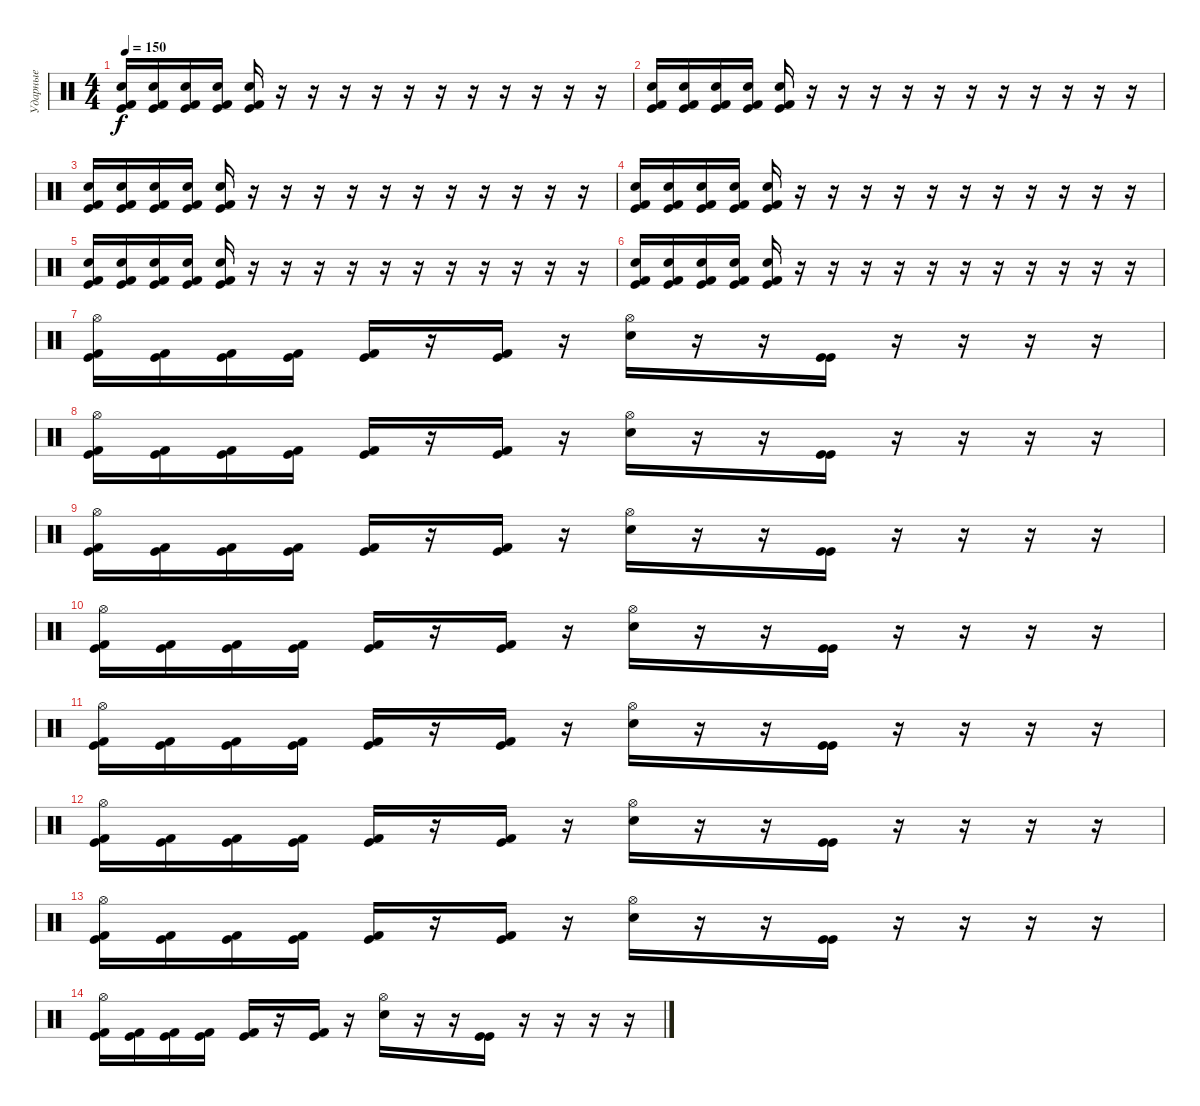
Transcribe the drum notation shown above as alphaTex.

\track ("Ударные" "Ударные") {instrument percussion}
\staff {score}
\articulation defaults
\ts (4 4)
\tempo 150
\clef neutral
\ks c
("Electric Snare (hit)" "Kick (hit)" "Kick (hit) 2").16{dy f} ("Electric Snare (hit)" "Kick (hit)" "Kick (hit) 2").16 ("Electric Snare (hit)" "Kick (hit)" "Kick (hit) 2").16 ("Electric Snare (hit)" "Kick (hit)" "Kick (hit) 2").16 ("Electric Snare (hit)" "Kick (hit)" "Kick (hit) 2").16 r.16 r.16 r.16 r.16 r.16 r.16 r.16 r.16 r.16 r.16 r.16 |
("Electric Snare (hit)" "Kick (hit)" "Kick (hit) 2").16 ("Electric Snare (hit)" "Kick (hit)" "Kick (hit) 2").16 ("Electric Snare (hit)" "Kick (hit)" "Kick (hit) 2").16 ("Electric Snare (hit)" "Kick (hit)" "Kick (hit) 2").16 ("Electric Snare (hit)" "Kick (hit)" "Kick (hit) 2").16 r.16 r.16 r.16 r.16 r.16 r.16 r.16 r.16 r.16 r.16 r.16 |
("Electric Snare (hit)" "Kick (hit)" "Kick (hit) 2").16 ("Electric Snare (hit)" "Kick (hit)" "Kick (hit) 2").16 ("Electric Snare (hit)" "Kick (hit)" "Kick (hit) 2").16 ("Electric Snare (hit)" "Kick (hit)" "Kick (hit) 2").16 ("Electric Snare (hit)" "Kick (hit)" "Kick (hit) 2").16 r.16 r.16 r.16 r.16 r.16 r.16 r.16 r.16 r.16 r.16 r.16 |
("Electric Snare (hit)" "Kick (hit)" "Kick (hit) 2").16 ("Electric Snare (hit)" "Kick (hit)" "Kick (hit) 2").16 ("Electric Snare (hit)" "Kick (hit)" "Kick (hit) 2").16 ("Electric Snare (hit)" "Kick (hit)" "Kick (hit) 2").16 ("Electric Snare (hit)" "Kick (hit)" "Kick (hit) 2").16 r.16 r.16 r.16 r.16 r.16 r.16 r.16 r.16 r.16 r.16 r.16 |
("Electric Snare (hit)" "Kick (hit)" "Kick (hit) 2").16 ("Electric Snare (hit)" "Kick (hit)" "Kick (hit) 2").16 ("Electric Snare (hit)" "Kick (hit)" "Kick (hit) 2").16 ("Electric Snare (hit)" "Kick (hit)" "Kick (hit) 2").16 ("Electric Snare (hit)" "Kick (hit)" "Kick (hit) 2").16 r.16 r.16 r.16 r.16 r.16 r.16 r.16 r.16 r.16 r.16 r.16 |
("Electric Snare (hit)" "Kick (hit)" "Kick (hit) 2").16 ("Electric Snare (hit)" "Kick (hit)" "Kick (hit) 2").16 ("Electric Snare (hit)" "Kick (hit)" "Kick (hit) 2").16 ("Electric Snare (hit)" "Kick (hit)" "Kick (hit) 2").16 ("Electric Snare (hit)" "Kick (hit)" "Kick (hit) 2").16 r.16 r.16 r.16 r.16 r.16 r.16 r.16 r.16 r.16 r.16 r.16 |
("Hi-Hat (open)" "Kick (hit)" "Kick (hit) 2").16 ("Kick (hit)" "Kick (hit) 2").16 ("Kick (hit)" "Kick (hit) 2").16 ("Kick (hit)" "Kick (hit) 2").16 ("Kick (hit)" "Kick (hit) 2").16 r.16 ("Kick (hit)" "Kick (hit) 2").16 r.16 ("Hi-Hat (open)" "Electric Snare (hit)").16 r.16 r.16 ("Kick (hit)" "Kick (hit)").16 r.16 r.16 r.16 r.16 |
("Hi-Hat (open)" "Kick (hit)" "Kick (hit) 2").16 ("Kick (hit)" "Kick (hit) 2").16 ("Kick (hit)" "Kick (hit) 2").16 ("Kick (hit)" "Kick (hit) 2").16 ("Kick (hit)" "Kick (hit) 2").16 r.16 ("Kick (hit)" "Kick (hit) 2").16 r.16 ("Hi-Hat (open)" "Electric Snare (hit)").16 r.16 r.16 ("Kick (hit)" "Kick (hit)").16 r.16 r.16 r.16 r.16 |
("Hi-Hat (open)" "Kick (hit)" "Kick (hit) 2").16 ("Kick (hit)" "Kick (hit) 2").16 ("Kick (hit)" "Kick (hit) 2").16 ("Kick (hit)" "Kick (hit) 2").16 ("Kick (hit)" "Kick (hit) 2").16 r.16 ("Kick (hit)" "Kick (hit) 2").16 r.16 ("Hi-Hat (open)" "Electric Snare (hit)").16 r.16 r.16 ("Kick (hit)" "Kick (hit)").16 r.16 r.16 r.16 r.16 |
("Hi-Hat (open)" "Kick (hit)" "Kick (hit) 2").16 ("Kick (hit)" "Kick (hit) 2").16 ("Kick (hit)" "Kick (hit) 2").16 ("Kick (hit)" "Kick (hit) 2").16 ("Kick (hit)" "Kick (hit) 2").16 r.16 ("Kick (hit)" "Kick (hit) 2").16 r.16 ("Hi-Hat (open)" "Electric Snare (hit)").16 r.16 r.16 ("Kick (hit)" "Kick (hit)").16 r.16 r.16 r.16 r.16 |
("Hi-Hat (open)" "Kick (hit)" "Kick (hit) 2").16 ("Kick (hit)" "Kick (hit) 2").16 ("Kick (hit)" "Kick (hit) 2").16 ("Kick (hit)" "Kick (hit) 2").16 ("Kick (hit)" "Kick (hit) 2").16 r.16 ("Kick (hit)" "Kick (hit) 2").16 r.16 ("Hi-Hat (open)" "Electric Snare (hit)").16 r.16 r.16 ("Kick (hit)" "Kick (hit)").16 r.16 r.16 r.16 r.16 |
("Hi-Hat (open)" "Kick (hit)" "Kick (hit) 2").16 ("Kick (hit)" "Kick (hit) 2").16 ("Kick (hit)" "Kick (hit) 2").16 ("Kick (hit)" "Kick (hit) 2").16 ("Kick (hit)" "Kick (hit) 2").16 r.16 ("Kick (hit)" "Kick (hit) 2").16 r.16 ("Hi-Hat (open)" "Electric Snare (hit)").16 r.16 r.16 ("Kick (hit)" "Kick (hit)").16 r.16 r.16 r.16 r.16 |
("Hi-Hat (open)" "Kick (hit)" "Kick (hit) 2").16 ("Kick (hit)" "Kick (hit) 2").16 ("Kick (hit)" "Kick (hit) 2").16 ("Kick (hit)" "Kick (hit) 2").16 ("Kick (hit)" "Kick (hit) 2").16 r.16 ("Kick (hit)" "Kick (hit) 2").16 r.16 ("Hi-Hat (open)" "Electric Snare (hit)").16 r.16 r.16 ("Kick (hit)" "Kick (hit)").16 r.16 r.16 r.16 r.16 |
("Hi-Hat (open)" "Kick (hit)" "Kick (hit) 2").16 ("Kick (hit)" "Kick (hit) 2").16 ("Kick (hit)" "Kick (hit) 2").16 ("Kick (hit)" "Kick (hit) 2").16 ("Kick (hit)" "Kick (hit) 2").16 r.16 ("Kick (hit)" "Kick (hit) 2").16 r.16 ("Hi-Hat (open)" "Electric Snare (hit)").16 r.16 r.16 ("Kick (hit)" "Kick (hit)").16 r.16 r.16 r.16 r.16
